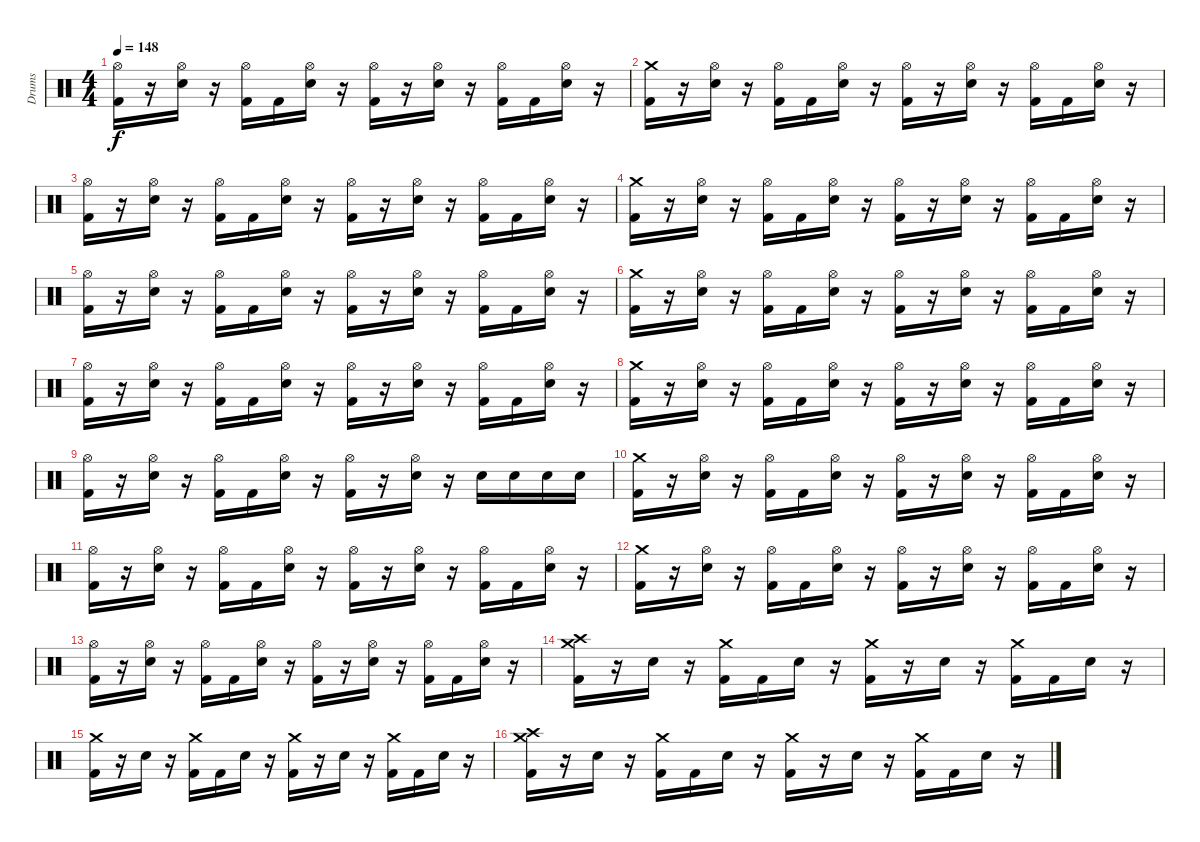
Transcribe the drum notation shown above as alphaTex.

\track ("Drums" "Drums") {instrument percussion}
\staff {score}
\articulation defaults
\ts (4 4)
\tempo 148
\clef neutral
\ks c
("Hi-Hat (open)" "Kick (hit) 2").16{dy f} r.16 ("Hi-Hat (open)" "Electric Snare (hit)").16 r.16 ("Hi-Hat (open)" "Kick (hit) 2").16 "Kick (hit) 2".16 ("Hi-Hat (open)" "Electric Snare (hit)").16 r.16 ("Hi-Hat (open)" "Kick (hit) 2").16 r.16 ("Hi-Hat (open)" "Electric Snare (hit)").16 r.16 ("Hi-Hat (open)" "Kick (hit) 2").16 "Kick (hit) 2".16 ("Hi-Hat (open)" "Electric Snare (hit)").16 r.16 |
("Crash medium (hit)" "Kick (hit) 2").16 r.16 ("Hi-Hat (open)" "Electric Snare (hit)").16 r.16 ("Hi-Hat (open)" "Kick (hit) 2").16 "Kick (hit) 2".16 ("Hi-Hat (open)" "Electric Snare (hit)").16 r.16 ("Hi-Hat (open)" "Kick (hit) 2").16 r.16 ("Hi-Hat (open)" "Electric Snare (hit)").16 r.16 ("Hi-Hat (open)" "Kick (hit) 2").16 "Kick (hit) 2".16 ("Hi-Hat (open)" "Electric Snare (hit)").16 r.16 |
("Hi-Hat (open)" "Kick (hit) 2").16 r.16 ("Hi-Hat (open)" "Electric Snare (hit)").16 r.16 ("Hi-Hat (open)" "Kick (hit) 2").16 "Kick (hit) 2".16 ("Hi-Hat (open)" "Electric Snare (hit)").16 r.16 ("Hi-Hat (open)" "Kick (hit) 2").16 r.16 ("Hi-Hat (open)" "Electric Snare (hit)").16 r.16 ("Hi-Hat (open)" "Kick (hit) 2").16 "Kick (hit) 2".16 ("Hi-Hat (open)" "Electric Snare (hit)").16 r.16 |
("Crash medium (hit)" "Kick (hit) 2").16 r.16 ("Hi-Hat (open)" "Electric Snare (hit)").16 r.16 ("Hi-Hat (open)" "Kick (hit) 2").16 "Kick (hit) 2".16 ("Hi-Hat (open)" "Electric Snare (hit)").16 r.16 ("Hi-Hat (open)" "Kick (hit) 2").16 r.16 ("Hi-Hat (open)" "Electric Snare (hit)").16 r.16 ("Hi-Hat (open)" "Kick (hit) 2").16 "Kick (hit) 2".16 ("Hi-Hat (open)" "Electric Snare (hit)").16 r.16 |
("Hi-Hat (open)" "Kick (hit) 2").16 r.16 ("Hi-Hat (open)" "Electric Snare (hit)").16 r.16 ("Hi-Hat (open)" "Kick (hit) 2").16 "Kick (hit) 2".16 ("Hi-Hat (open)" "Electric Snare (hit)").16 r.16 ("Hi-Hat (open)" "Kick (hit) 2").16 r.16 ("Hi-Hat (open)" "Electric Snare (hit)").16 r.16 ("Hi-Hat (open)" "Kick (hit) 2").16 "Kick (hit) 2".16 ("Hi-Hat (open)" "Electric Snare (hit)").16 r.16 |
("Crash medium (hit)" "Kick (hit) 2").16 r.16 ("Hi-Hat (open)" "Electric Snare (hit)").16 r.16 ("Hi-Hat (open)" "Kick (hit) 2").16 "Kick (hit) 2".16 ("Hi-Hat (open)" "Electric Snare (hit)").16 r.16 ("Hi-Hat (open)" "Kick (hit) 2").16 r.16 ("Hi-Hat (open)" "Electric Snare (hit)").16 r.16 ("Hi-Hat (open)" "Kick (hit) 2").16 "Kick (hit) 2".16 ("Hi-Hat (open)" "Electric Snare (hit)").16 r.16 |
("Hi-Hat (open)" "Kick (hit) 2").16 r.16 ("Hi-Hat (open)" "Electric Snare (hit)").16 r.16 ("Hi-Hat (open)" "Kick (hit) 2").16 "Kick (hit) 2".16 ("Hi-Hat (open)" "Electric Snare (hit)").16 r.16 ("Hi-Hat (open)" "Kick (hit) 2").16 r.16 ("Hi-Hat (open)" "Electric Snare (hit)").16 r.16 ("Hi-Hat (open)" "Kick (hit) 2").16 "Kick (hit) 2".16 ("Hi-Hat (open)" "Electric Snare (hit)").16 r.16 |
("Crash medium (hit)" "Kick (hit) 2").16 r.16 ("Hi-Hat (open)" "Electric Snare (hit)").16 r.16 ("Hi-Hat (open)" "Kick (hit) 2").16 "Kick (hit) 2".16 ("Hi-Hat (open)" "Electric Snare (hit)").16 r.16 ("Hi-Hat (open)" "Kick (hit) 2").16 r.16 ("Hi-Hat (open)" "Electric Snare (hit)").16 r.16 ("Hi-Hat (open)" "Kick (hit) 2").16 "Kick (hit) 2".16 ("Hi-Hat (open)" "Electric Snare (hit)").16 r.16 |
("Hi-Hat (open)" "Kick (hit) 2").16 r.16 ("Hi-Hat (open)" "Electric Snare (hit)").16 r.16 ("Hi-Hat (open)" "Kick (hit) 2").16 "Kick (hit) 2".16 ("Hi-Hat (open)" "Electric Snare (hit)").16 r.16 ("Hi-Hat (open)" "Kick (hit) 2").16 r.16 ("Hi-Hat (open)" "Electric Snare (hit)").16 r.16 "Electric Snare (hit)".16 "Electric Snare (hit)".16 "Electric Snare (hit)".16 "Electric Snare (hit)".16 |
("Crash medium (hit)" "Kick (hit) 2").16 r.16 ("Hi-Hat (open)" "Electric Snare (hit)").16 r.16 ("Hi-Hat (open)" "Kick (hit) 2").16 "Kick (hit) 2".16 ("Hi-Hat (open)" "Electric Snare (hit)").16 r.16 ("Hi-Hat (open)" "Kick (hit) 2").16 r.16 ("Hi-Hat (open)" "Electric Snare (hit)").16 r.16 ("Hi-Hat (open)" "Kick (hit) 2").16 "Kick (hit) 2".16 ("Hi-Hat (open)" "Electric Snare (hit)").16 r.16 |
("Hi-Hat (open)" "Kick (hit) 2").16 r.16 ("Hi-Hat (open)" "Electric Snare (hit)").16 r.16 ("Hi-Hat (open)" "Kick (hit) 2").16 "Kick (hit) 2".16 ("Hi-Hat (open)" "Electric Snare (hit)").16 r.16 ("Hi-Hat (open)" "Kick (hit) 2").16 r.16 ("Hi-Hat (open)" "Electric Snare (hit)").16 r.16 ("Hi-Hat (open)" "Kick (hit) 2").16 "Kick (hit) 2".16 ("Hi-Hat (open)" "Electric Snare (hit)").16 r.16 |
("Crash medium (hit)" "Kick (hit) 2").16 r.16 ("Hi-Hat (open)" "Electric Snare (hit)").16 r.16 ("Hi-Hat (open)" "Kick (hit) 2").16 "Kick (hit) 2".16 ("Hi-Hat (open)" "Electric Snare (hit)").16 r.16 ("Hi-Hat (open)" "Kick (hit) 2").16 r.16 ("Hi-Hat (open)" "Electric Snare (hit)").16 r.16 ("Hi-Hat (open)" "Kick (hit) 2").16 "Kick (hit) 2".16 ("Hi-Hat (open)" "Electric Snare (hit)").16 r.16 |
("Hi-Hat (open)" "Kick (hit) 2").16 r.16 ("Hi-Hat (open)" "Electric Snare (hit)").16 r.16 ("Hi-Hat (open)" "Kick (hit) 2").16 "Kick (hit) 2".16 ("Hi-Hat (open)" "Electric Snare (hit)").16 r.16 ("Hi-Hat (open)" "Kick (hit) 2").16 r.16 ("Hi-Hat (open)" "Electric Snare (hit)").16 r.16 ("Hi-Hat (open)" "Kick (hit) 2").16 "Kick (hit) 2".16 ("Hi-Hat (open)" "Electric Snare (hit)").16 r.16 |
("Crash high (hit)" "Crash medium (hit)" "Kick (hit) 2").16 r.16 "Electric Snare (hit)".16 r.16 ("Crash medium (hit)" "Kick (hit) 2").16 "Kick (hit) 2".16 "Electric Snare (hit)".16 r.16 ("Crash medium (hit)" "Kick (hit) 2").16 r.16 "Electric Snare (hit)".16 r.16 ("Crash medium (hit)" "Kick (hit) 2").16 "Kick (hit) 2".16 "Electric Snare (hit)".16 r.16 |
("Crash medium (hit)" "Kick (hit) 2").16 r.16 "Electric Snare (hit)".16 r.16 ("Crash medium (hit)" "Kick (hit) 2").16 "Kick (hit) 2".16 "Electric Snare (hit)".16 r.16 ("Crash medium (hit)" "Kick (hit) 2").16 r.16 "Electric Snare (hit)".16 r.16 ("Crash medium (hit)" "Kick (hit) 2").16 "Kick (hit) 2".16 "Electric Snare (hit)".16 r.16 |
("Crash high (hit)" "Crash medium (hit)" "Kick (hit) 2").16 r.16 "Electric Snare (hit)".16 r.16 ("Crash medium (hit)" "Kick (hit) 2").16 "Kick (hit) 2".16 "Electric Snare (hit)".16 r.16 ("Crash medium (hit)" "Kick (hit) 2").16 r.16 "Electric Snare (hit)".16 r.16 ("Crash medium (hit)" "Kick (hit) 2").16 "Kick (hit) 2".16 "Electric Snare (hit)".16 r.16
